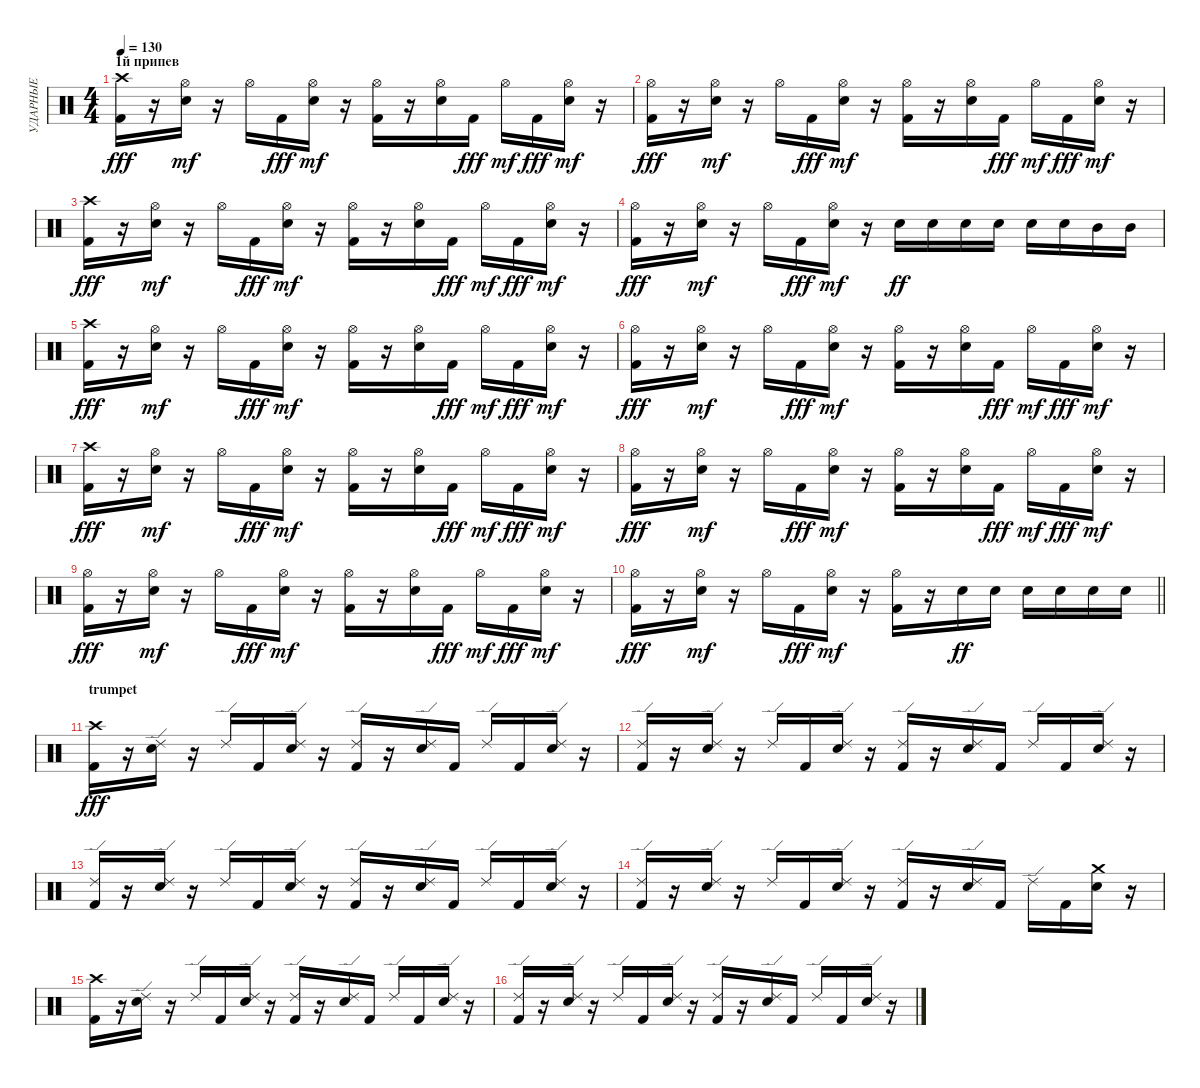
\track ("УДАРНЫЕ" "УДАРНЫЕ") {instrument percussion}
\staff {score}
\articulation defaults
\ts (4 4)
\section ("" "1й припев")
\tempo 130
\clef neutral
\ks c
("Crash high (hit)" "Kick (hit) 2").16{dy fff} r.16 ("Snare (hit) 2" "Hi-Hat (open)").16{dy mf} r.16 "Hi-Hat (open)".16 "Kick (hit) 2".16{dy fff} ("Snare (hit) 2" "Hi-Hat (open)").16{dy mf} r.16 ("Kick (hit) 2" "Hi-Hat (open)").16 r.16 ("Snare (hit) 2" "Hi-Hat (open)").16 "Kick (hit) 2".16{dy fff} "Hi-Hat (open)".16{dy mf} "Kick (hit) 2".16{dy fff} ("Snare (hit) 2" "Hi-Hat (open)").16{dy mf} r.16 |
("Hi-Hat (open)" "Kick (hit) 2").16{dy fff} r.16 ("Snare (hit) 2" "Hi-Hat (open)").16{dy mf} r.16 "Hi-Hat (open)".16 "Kick (hit) 2".16{dy fff} ("Snare (hit) 2" "Hi-Hat (open)").16{dy mf} r.16 ("Kick (hit) 2" "Hi-Hat (open)").16 r.16 ("Snare (hit) 2" "Hi-Hat (open)").16 "Kick (hit) 2".16{dy fff} "Hi-Hat (open)".16{dy mf} "Kick (hit) 2".16{dy fff} ("Snare (hit) 2" "Hi-Hat (open)").16{dy mf} r.16 |
("Crash high (hit)" "Kick (hit) 2").16{dy fff} r.16 ("Snare (hit) 2" "Hi-Hat (open)").16{dy mf} r.16 "Hi-Hat (open)".16 "Kick (hit) 2".16{dy fff} ("Snare (hit) 2" "Hi-Hat (open)").16{dy mf} r.16 ("Kick (hit) 2" "Hi-Hat (open)").16 r.16 ("Snare (hit) 2" "Hi-Hat (open)").16 "Kick (hit) 2".16{dy fff} "Hi-Hat (open)".16{dy mf} "Kick (hit) 2".16{dy fff} ("Snare (hit) 2" "Hi-Hat (open)").16{dy mf} r.16 |
("Hi-Hat (open)" "Kick (hit) 2").16{dy fff} r.16 ("Snare (hit) 2" "Hi-Hat (open)").16{dy mf} r.16 "Hi-Hat (open)".16 "Kick (hit) 2".16{dy fff} ("Snare (hit) 2" "Hi-Hat (open)").16{dy mf} r.16 "Snare (hit) 2".16{dy ff} "Snare (hit) 2".16 "Snare (hit) 2".16 "Snare (hit) 2".16 "Snare (hit) 2".16 "Snare (hit) 2".16 "Mid Tom (hit)".16 "Mid Tom (hit)".16 |
("Crash high (hit)" "Kick (hit) 2").16{dy fff} r.16 ("Snare (hit) 2" "Hi-Hat (open)").16{dy mf} r.16 "Hi-Hat (open)".16 "Kick (hit) 2".16{dy fff} ("Snare (hit) 2" "Hi-Hat (open)").16{dy mf} r.16 ("Kick (hit) 2" "Hi-Hat (open)").16 r.16 ("Snare (hit) 2" "Hi-Hat (open)").16 "Kick (hit) 2".16{dy fff} "Hi-Hat (open)".16{dy mf} "Kick (hit) 2".16{dy fff} ("Snare (hit) 2" "Hi-Hat (open)").16{dy mf} r.16 |
("Hi-Hat (open)" "Kick (hit) 2").16{dy fff} r.16 ("Snare (hit) 2" "Hi-Hat (open)").16{dy mf} r.16 "Hi-Hat (open)".16 "Kick (hit) 2".16{dy fff} ("Snare (hit) 2" "Hi-Hat (open)").16{dy mf} r.16 ("Kick (hit) 2" "Hi-Hat (open)").16 r.16 ("Snare (hit) 2" "Hi-Hat (open)").16 "Kick (hit) 2".16{dy fff} "Hi-Hat (open)".16{dy mf} "Kick (hit) 2".16{dy fff} ("Snare (hit) 2" "Hi-Hat (open)").16{dy mf} r.16 |
("Crash high (hit)" "Kick (hit) 2").16{dy fff} r.16 ("Snare (hit) 2" "Hi-Hat (open)").16{dy mf} r.16 "Hi-Hat (open)".16 "Kick (hit) 2".16{dy fff} ("Snare (hit) 2" "Hi-Hat (open)").16{dy mf} r.16 ("Kick (hit) 2" "Hi-Hat (open)").16 r.16 ("Snare (hit) 2" "Hi-Hat (open)").16 "Kick (hit) 2".16{dy fff} "Hi-Hat (open)".16{dy mf} "Kick (hit) 2".16{dy fff} ("Snare (hit) 2" "Hi-Hat (open)").16{dy mf} r.16 |
("Hi-Hat (open)" "Kick (hit) 2").16{dy fff} r.16 ("Snare (hit) 2" "Hi-Hat (open)").16{dy mf} r.16 "Hi-Hat (open)".16 "Kick (hit) 2".16{dy fff} ("Snare (hit) 2" "Hi-Hat (open)").16{dy mf} r.16 ("Kick (hit) 2" "Hi-Hat (open)").16 r.16 ("Snare (hit) 2" "Hi-Hat (open)").16 "Kick (hit) 2".16{dy fff} "Hi-Hat (open)".16{dy mf} "Kick (hit) 2".16{dy fff} ("Snare (hit) 2" "Hi-Hat (open)").16{dy mf} r.16 |
("Hi-Hat (open)" "Kick (hit) 2").16{dy fff} r.16 ("Snare (hit) 2" "Hi-Hat (open)").16{dy mf} r.16 "Hi-Hat (open)".16 "Kick (hit) 2".16{dy fff} ("Snare (hit) 2" "Hi-Hat (open)").16{dy mf} r.16 ("Kick (hit) 2" "Hi-Hat (open)").16 r.16 ("Snare (hit) 2" "Hi-Hat (open)").16 "Kick (hit) 2".16{dy fff} "Hi-Hat (open)".16{dy mf} "Kick (hit) 2".16{dy fff} ("Snare (hit) 2" "Hi-Hat (open)").16{dy mf} r.16 |
\barLineRight lightlight
("Hi-Hat (open)" "Kick (hit) 2").16{dy fff} r.16 ("Snare (hit) 2" "Hi-Hat (open)").16{dy mf} r.16 "Hi-Hat (open)".16 "Kick (hit) 2".16{dy fff} ("Snare (hit) 2" "Hi-Hat (open)").16{dy mf} r.16 ("Kick (hit) 2" "Hi-Hat (open)").16 r.16 "Snare (hit) 2".16{dy ff} "Snare (hit) 2".16 "Snare (hit) 2".16 "Snare (hit) 2".16 "Snare (hit) 2".16 "Snare (hit) 2".16 |
\section ("" "trumpet")
("Crash high (hit)" "Kick (hit) 2").16{dy fff} r.16 ("Snare (hit) 2" "Ride (edge) 2").16 r.16 "Ride (edge) 2".16 "Kick (hit) 2".16 ("Snare (hit) 2" "Ride (edge) 2").16 r.16 ("Kick (hit) 2" "Ride (edge) 2").16 r.16 ("Snare (hit) 2" "Ride (edge) 2").16 "Kick (hit) 2".16 "Ride (edge) 2".16 "Kick (hit) 2".16 ("Snare (hit) 2" "Ride (edge) 2").16 r.16 |
("Ride (edge) 2" "Kick (hit) 2").16 r.16 ("Snare (hit) 2" "Ride (edge) 2").16 r.16 "Ride (edge) 2".16 "Kick (hit) 2".16 ("Snare (hit) 2" "Ride (edge) 2").16 r.16 ("Kick (hit) 2" "Ride (edge) 2").16 r.16 ("Snare (hit) 2" "Ride (edge) 2").16 "Kick (hit) 2".16 "Ride (edge) 2".16 "Kick (hit) 2".16 ("Snare (hit) 2" "Ride (edge) 2").16 r.16 |
("Ride (edge) 2" "Kick (hit) 2").16 r.16 ("Snare (hit) 2" "Ride (edge) 2").16 r.16 "Ride (edge) 2".16 "Kick (hit) 2".16 ("Snare (hit) 2" "Ride (edge) 2").16 r.16 ("Kick (hit) 2" "Ride (edge) 2").16 r.16 ("Snare (hit) 2" "Ride (edge) 2").16 "Kick (hit) 2".16 "Ride (edge) 2".16 "Kick (hit) 2".16 ("Snare (hit) 2" "Ride (edge) 2").16 r.16 |
("Ride (edge) 2" "Kick (hit) 2").16 r.16 ("Snare (hit) 2" "Ride (edge) 2").16 r.16 "Ride (edge) 2".16 "Kick (hit) 2".16 ("Snare (hit) 2" "Ride (edge) 2").16 r.16 ("Kick (hit) 2" "Ride (edge) 2").16 r.16 ("Snare (hit) 2" "Ride (edge) 2").16 "Kick (hit) 2".16 "Ride (edge) 2".16 "Kick (hit) 2".16 ("Snare (hit) 2" "Crash medium (hit)").16 r.16 |
("Crash high (hit)" "Kick (hit) 2").16 r.16 ("Snare (hit) 2" "Ride (edge) 2").16 r.16 "Ride (edge) 2".16 "Kick (hit) 2".16 ("Snare (hit) 2" "Ride (edge) 2").16 r.16 ("Kick (hit) 2" "Ride (edge) 2").16 r.16 ("Snare (hit) 2" "Ride (edge) 2").16 "Kick (hit) 2".16 "Ride (edge) 2".16 "Kick (hit) 2".16 ("Snare (hit) 2" "Ride (edge) 2").16 r.16 |
("Ride (edge) 2" "Kick (hit) 2").16 r.16 ("Snare (hit) 2" "Ride (edge) 2").16 r.16 "Ride (edge) 2".16 "Kick (hit) 2".16 ("Snare (hit) 2" "Ride (edge) 2").16 r.16 ("Kick (hit) 2" "Ride (edge) 2").16 r.16 ("Snare (hit) 2" "Ride (edge) 2").16 "Kick (hit) 2".16 "Ride (edge) 2".16 "Kick (hit) 2".16 ("Snare (hit) 2" "Ride (edge) 2").16 r.16
